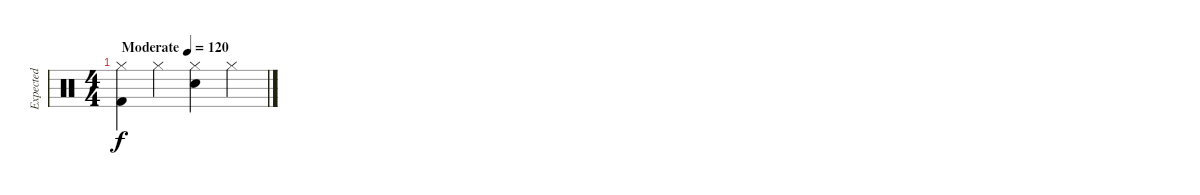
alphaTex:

\track ("Expected" "Expected") {instrument percussion}
\staff {score}
\articulation defaults
\ts (4 4)
\tempo (120 "Moderate")
\clef neutral
\ks c
("Hi-Hat (closed)" "Kick (hit) 2").4{dy f} "Hi-Hat (closed)".4 ("Hi-Hat (closed)" "Snare (hit) 2").4 "Hi-Hat (closed)".4
